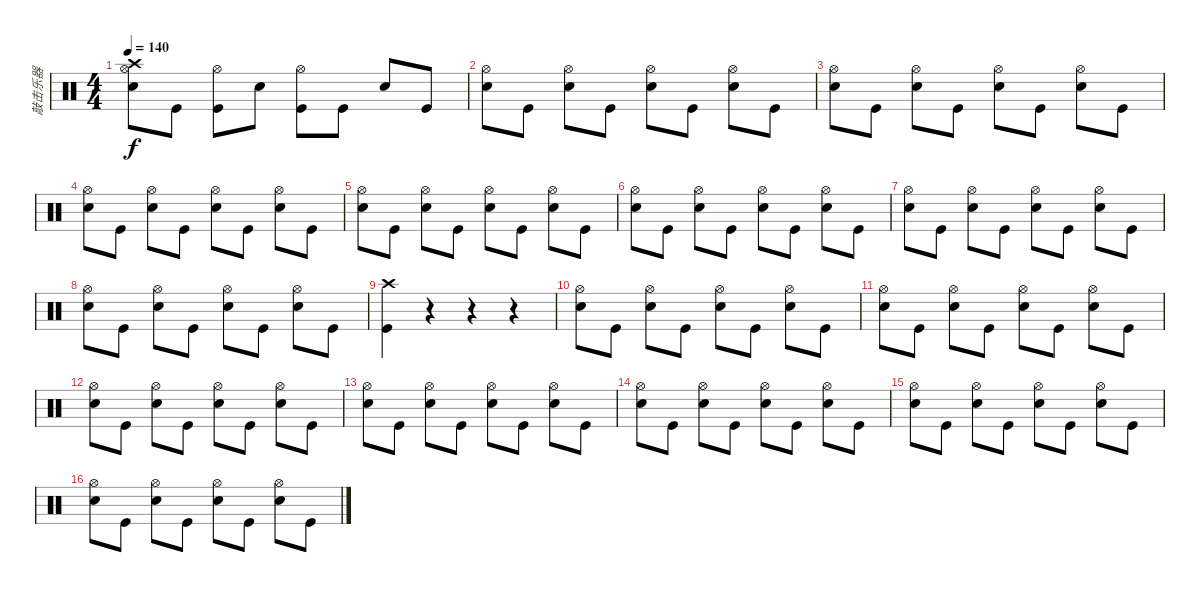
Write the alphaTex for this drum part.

\track ("敲击乐器" "敲击乐器") {instrument percussion}
\staff {score}
\articulation defaults
\ts (4 4)
\tempo 140
\clef neutral
\ks c
("Snare (hit) 2" "Hi-Hat (open)" "Crash high (hit)").8{dy f} "Kick (hit)".8 ("Kick (hit)" "Hi-Hat (open)").8 "Snare (hit) 2".8 ("Kick (hit)" "Hi-Hat (open)").8 "Kick (hit)".8 "Snare (hit) 2".8 "Kick (hit)".8 |
("Snare (hit) 2" "Hi-Hat (open)").8 "Kick (hit)".8 ("Hi-Hat (open)" "Snare (hit) 2").8 "Kick (hit)".8 ("Snare (hit) 2" "Hi-Hat (open)").8 "Kick (hit)".8 ("Hi-Hat (open)" "Snare (hit) 2").8 "Kick (hit)".8 |
("Snare (hit) 2" "Hi-Hat (open)").8 "Kick (hit)".8 ("Hi-Hat (open)" "Snare (hit) 2").8 "Kick (hit)".8 ("Snare (hit) 2" "Hi-Hat (open)").8 "Kick (hit)".8 ("Hi-Hat (open)" "Snare (hit) 2").8 "Kick (hit)".8 |
("Snare (hit) 2" "Hi-Hat (open)").8 "Kick (hit)".8 ("Hi-Hat (open)" "Snare (hit) 2").8 "Kick (hit)".8 ("Snare (hit) 2" "Hi-Hat (open)").8 "Kick (hit)".8 ("Hi-Hat (open)" "Snare (hit) 2").8 "Kick (hit)".8 |
("Snare (hit) 2" "Hi-Hat (open)").8 "Kick (hit)".8 ("Hi-Hat (open)" "Snare (hit) 2").8 "Kick (hit)".8 ("Snare (hit) 2" "Hi-Hat (open)").8 "Kick (hit)".8 ("Hi-Hat (open)" "Snare (hit) 2").8 "Kick (hit)".8 |
("Snare (hit) 2" "Hi-Hat (open)").8 "Kick (hit)".8 ("Hi-Hat (open)" "Snare (hit) 2").8 "Kick (hit)".8 ("Snare (hit) 2" "Hi-Hat (open)").8 "Kick (hit)".8 ("Hi-Hat (open)" "Snare (hit) 2").8 "Kick (hit)".8 |
("Snare (hit) 2" "Hi-Hat (open)").8 "Kick (hit)".8 ("Hi-Hat (open)" "Snare (hit) 2").8 "Kick (hit)".8 ("Snare (hit) 2" "Hi-Hat (open)").8 "Kick (hit)".8 ("Hi-Hat (open)" "Snare (hit) 2").8 "Kick (hit)".8 |
("Snare (hit) 2" "Hi-Hat (open)").8 "Kick (hit)".8 ("Hi-Hat (open)" "Snare (hit) 2").8 "Kick (hit)".8 ("Snare (hit) 2" "Hi-Hat (open)").8 "Kick (hit)".8 ("Hi-Hat (open)" "Snare (hit) 2").8 "Kick (hit)".8 |
("Crash high (hit)" "Kick (hit)").4 r.4 r.4 r.4 |
("Snare (hit) 2" "Hi-Hat (open)").8 "Kick (hit)".8 ("Hi-Hat (open)" "Snare (hit) 2").8 "Kick (hit)".8 ("Snare (hit) 2" "Hi-Hat (open)").8 "Kick (hit)".8 ("Hi-Hat (open)" "Snare (hit) 2").8 "Kick (hit)".8 |
("Snare (hit) 2" "Hi-Hat (open)").8 "Kick (hit)".8 ("Hi-Hat (open)" "Snare (hit) 2").8 "Kick (hit)".8 ("Snare (hit) 2" "Hi-Hat (open)").8 "Kick (hit)".8 ("Hi-Hat (open)" "Snare (hit) 2").8 "Kick (hit)".8 |
("Snare (hit) 2" "Hi-Hat (open)").8 "Kick (hit)".8 ("Hi-Hat (open)" "Snare (hit) 2").8 "Kick (hit)".8 ("Snare (hit) 2" "Hi-Hat (open)").8 "Kick (hit)".8 ("Hi-Hat (open)" "Snare (hit) 2").8 "Kick (hit)".8 |
("Snare (hit) 2" "Hi-Hat (open)").8 "Kick (hit)".8 ("Hi-Hat (open)" "Snare (hit) 2").8 "Kick (hit)".8 ("Snare (hit) 2" "Hi-Hat (open)").8 "Kick (hit)".8 ("Hi-Hat (open)" "Snare (hit) 2").8 "Kick (hit)".8 |
("Snare (hit) 2" "Hi-Hat (open)").8 "Kick (hit)".8 ("Hi-Hat (open)" "Snare (hit) 2").8 "Kick (hit)".8 ("Snare (hit) 2" "Hi-Hat (open)").8 "Kick (hit)".8 ("Hi-Hat (open)" "Snare (hit) 2").8 "Kick (hit)".8 |
("Snare (hit) 2" "Hi-Hat (open)").8 "Kick (hit)".8 ("Hi-Hat (open)" "Snare (hit) 2").8 "Kick (hit)".8 ("Snare (hit) 2" "Hi-Hat (open)").8 "Kick (hit)".8 ("Hi-Hat (open)" "Snare (hit) 2").8 "Kick (hit)".8 |
("Snare (hit) 2" "Hi-Hat (open)").8 "Kick (hit)".8 ("Hi-Hat (open)" "Snare (hit) 2").8 "Kick (hit)".8 ("Snare (hit) 2" "Hi-Hat (open)").8 "Kick (hit)".8 ("Hi-Hat (open)" "Snare (hit) 2").8 "Kick (hit)".8
